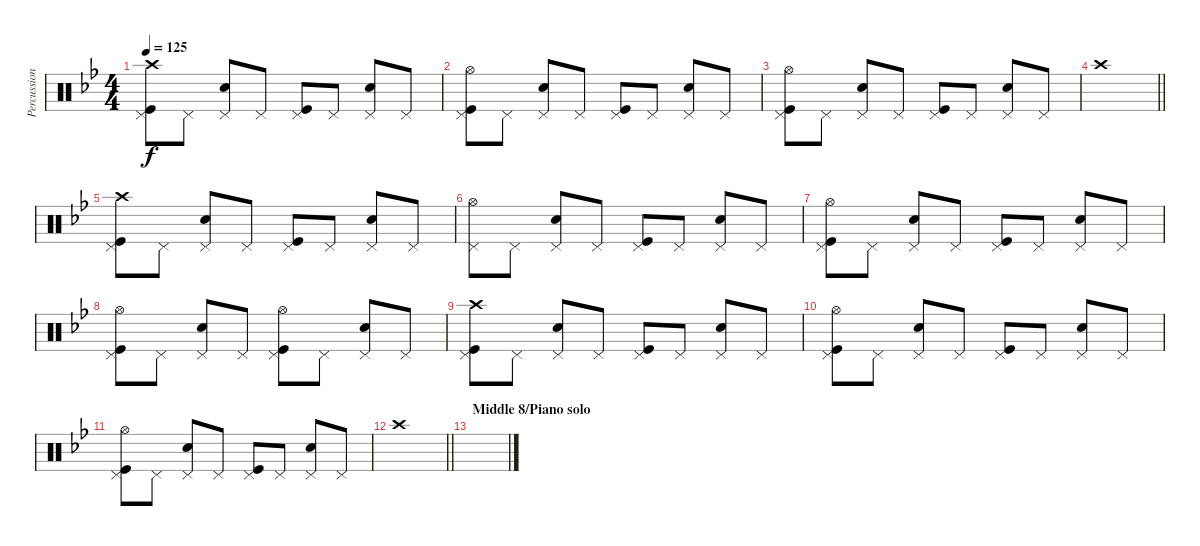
\track ("Percussion" "Percussion") {instrument percussion}
\staff {score}
\articulation defaults
\ts (4 4)
\tempo 125
\clef neutral
\ks bb
("Crash high (hit)" "Kick (hit)" "Pedal Hi-Hat (hit)").8{dy f} "Pedal Hi-Hat (hit)".8 ("Snare (hit) 2" "Pedal Hi-Hat (hit)").8 "Pedal Hi-Hat (hit)".8 ("Kick (hit)" "Pedal Hi-Hat (hit)").8 "Pedal Hi-Hat (hit)".8 ("Snare (hit) 2" "Pedal Hi-Hat (hit)").8 "Pedal Hi-Hat (hit)".8 |
("Hi-Hat (open)" "Kick (hit)" "Pedal Hi-Hat (hit)").8 "Pedal Hi-Hat (hit)".8 ("Snare (hit) 2" "Pedal Hi-Hat (hit)").8 "Pedal Hi-Hat (hit)".8 ("Kick (hit)" "Pedal Hi-Hat (hit)").8 "Pedal Hi-Hat (hit)".8 ("Snare (hit) 2" "Pedal Hi-Hat (hit)").8 "Pedal Hi-Hat (hit)".8 |
("Hi-Hat (open)" "Kick (hit)" "Pedal Hi-Hat (hit)").8 "Pedal Hi-Hat (hit)".8 ("Snare (hit) 2" "Pedal Hi-Hat (hit)").8 "Pedal Hi-Hat (hit)".8 ("Kick (hit)" "Pedal Hi-Hat (hit)").8 "Pedal Hi-Hat (hit)".8 ("Snare (hit) 2" "Pedal Hi-Hat (hit)").8 "Pedal Hi-Hat (hit)".8 |
\barLineRight lightlight "Crash high (hit)".1
|
("Crash high (hit)" "Kick (hit)" "Pedal Hi-Hat (hit)").8 "Pedal Hi-Hat (hit)".8 ("Snare (hit) 2" "Pedal Hi-Hat (hit)").8 "Pedal Hi-Hat (hit)".8 ("Kick (hit)" "Pedal Hi-Hat (hit)").8 "Pedal Hi-Hat (hit)".8 ("Snare (hit) 2" "Pedal Hi-Hat (hit)").8 "Pedal Hi-Hat (hit)".8 |
("Hi-Hat (open)" "Pedal Hi-Hat (hit)").8 "Pedal Hi-Hat (hit)".8 ("Snare (hit) 2" "Pedal Hi-Hat (hit)").8 "Pedal Hi-Hat (hit)".8 ("Kick (hit)" "Pedal Hi-Hat (hit)").8 "Pedal Hi-Hat (hit)".8 ("Snare (hit) 2" "Pedal Hi-Hat (hit)").8 "Pedal Hi-Hat (hit)".8 |
("Hi-Hat (open)" "Kick (hit)" "Pedal Hi-Hat (hit)").8 "Pedal Hi-Hat (hit)".8 ("Snare (hit) 2" "Pedal Hi-Hat (hit)").8 "Pedal Hi-Hat (hit)".8 ("Kick (hit)" "Pedal Hi-Hat (hit)").8 "Pedal Hi-Hat (hit)".8 ("Snare (hit) 2" "Pedal Hi-Hat (hit)").8 "Pedal Hi-Hat (hit)".8 |
("Hi-Hat (open)" "Kick (hit)" "Pedal Hi-Hat (hit)").8 "Pedal Hi-Hat (hit)".8 ("Snare (hit) 2" "Pedal Hi-Hat (hit)").8 "Pedal Hi-Hat (hit)".8 ("Hi-Hat (open)" "Kick (hit)" "Pedal Hi-Hat (hit)").8 "Pedal Hi-Hat (hit)".8 ("Snare (hit) 2" "Pedal Hi-Hat (hit)").8 "Pedal Hi-Hat (hit)".8 |
("Crash high (hit)" "Kick (hit)" "Pedal Hi-Hat (hit)").8 "Pedal Hi-Hat (hit)".8 ("Snare (hit) 2" "Pedal Hi-Hat (hit)").8 "Pedal Hi-Hat (hit)".8 ("Kick (hit)" "Pedal Hi-Hat (hit)").8 "Pedal Hi-Hat (hit)".8 ("Snare (hit) 2" "Pedal Hi-Hat (hit)").8 "Pedal Hi-Hat (hit)".8 |
("Hi-Hat (open)" "Kick (hit)" "Pedal Hi-Hat (hit)").8 "Pedal Hi-Hat (hit)".8 ("Snare (hit) 2" "Pedal Hi-Hat (hit)").8 "Pedal Hi-Hat (hit)".8 ("Kick (hit)" "Pedal Hi-Hat (hit)").8 "Pedal Hi-Hat (hit)".8 ("Snare (hit) 2" "Pedal Hi-Hat (hit)").8 "Pedal Hi-Hat (hit)".8 |
("Hi-Hat (open)" "Kick (hit)" "Pedal Hi-Hat (hit)").8 "Pedal Hi-Hat (hit)".8 ("Snare (hit) 2" "Pedal Hi-Hat (hit)").8 "Pedal Hi-Hat (hit)".8 ("Kick (hit)" "Pedal Hi-Hat (hit)").8 "Pedal Hi-Hat (hit)".8 ("Snare (hit) 2" "Pedal Hi-Hat (hit)").8 "Pedal Hi-Hat (hit)".8 |
\barLineRight lightlight "Crash high (hit)".1
|
\section ("" "Middle 8/Piano solo")
